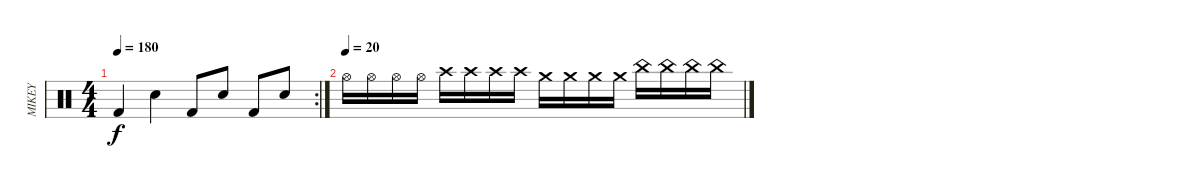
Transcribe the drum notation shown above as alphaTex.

\track ("MIKEY" "MIKEY") {instrument percussion}
\staff {score}
\articulation defaults
\rc 2
\ts (4 4)
\tempo 180
\clef neutral
\ks c "Kick (hit) 2".4{dy f} "Snare (hit) 2".4 "Kick (hit) 2".8 "Snare (hit) 2".8 "Kick (hit) 2".8 "Snare (hit) 2".8
|
\tempo (20)
"Hi-Hat (open)".16 "Hi-Hat (open)".16 "Hi-Hat (open)".16 "Hi-Hat (open)".16 "Crash high (hit)".16 "Crash high (hit)".16 "Crash high (hit)".16 "Crash high (hit)".16 "Crash medium (hit)".16 "Crash medium (hit)".16 "Crash medium (hit)".16 "Crash medium (hit)".16 "China (hit)".16 "China (hit)"{x}.16 "China (hit)".16 "China (hit)"{x}.16
